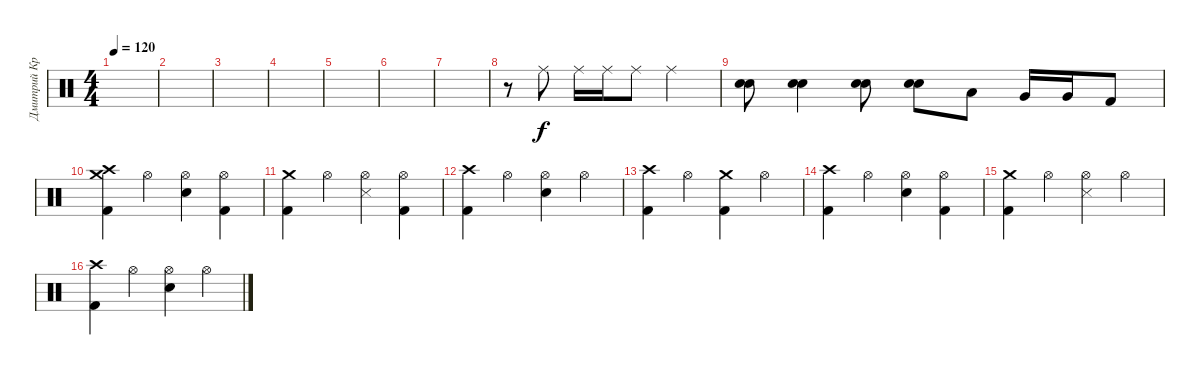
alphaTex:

\track ("Дмитрий Кривенков       (Ударные)" "Дмитрий Кр") {instrument percussion}
\staff {score}
\articulation defaults
\ts (4 4)
\tempo 120
\clef neutral
\ks c
|
|
|
|
|
|
|
r.8 "Ride (middle)".8{dy f} "Ride (middle)".16 "Ride (middle)".16 "Ride (middle)".8 "Ride (middle)".2 |
("Electric Snare (hit)" "Electric Snare (hit)").8 ("Electric Snare (hit)" "Electric Snare (hit)").4 ("Electric Snare (hit)" "Electric Snare (hit)").8 ("Electric Snare (hit)" "Electric Snare (hit)").8 "Low Tom (hit)".8 "Very Low Tom (hit)".16 "Very Low Tom (hit)".16 "Kick (hit) 2".8 |
("Crash medium (hit)" "Crash high (hit)" "Kick (hit) 2").4 "Hi-Hat (open)".4 ("Hi-Hat (open)" "Electric Snare (hit)").4 ("Hi-Hat (open)" "Kick (hit) 2").4 |
("Crash medium (hit)" "Kick (hit) 2").4 "Hi-Hat (open)".4 ("Snare (side stick) 3" "Hi-Hat (open)").4 ("Hi-Hat (open)" "Kick (hit) 2").4 |
("Crash high (hit)" "Kick (hit) 2").4 "Hi-Hat (open)".4 ("Hi-Hat (open)" "Electric Snare (hit)").4 "Hi-Hat (open)".4 |
("Crash high (hit)" "Kick (hit) 2").4 "Hi-Hat (open)".4 ("Crash medium (hit)" "Kick (hit) 2").4 "Hi-Hat (open)".4 |
("Crash high (hit)" "Kick (hit) 2").4 "Hi-Hat (open)".4 ("Hi-Hat (open)" "Electric Snare (hit)").4 ("Hi-Hat (open)" "Kick (hit) 2").4 |
("Crash medium (hit)" "Kick (hit) 2").4 "Hi-Hat (open)".4 ("Snare (side stick) 3" "Hi-Hat (open)").4 "Hi-Hat (open)".4 |
("Crash high (hit)" "Kick (hit) 2").4 "Hi-Hat (open)".4 ("Hi-Hat (open)" "Electric Snare (hit)").4 "Hi-Hat (open)".4
